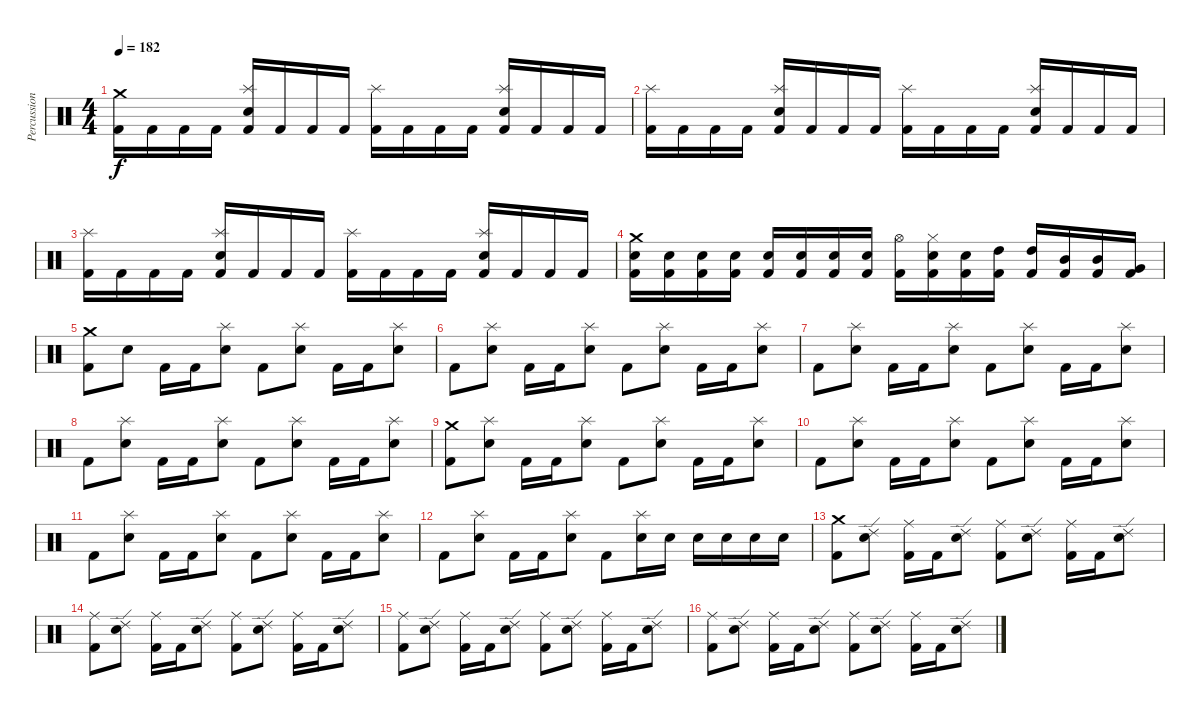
\track ("Percussion" "Percussion") {instrument percussion}
\staff {score}
\articulation defaults
\ts (4 4)
\tempo 182
\clef neutral
\ks c
("Crash medium (hit)" "Kick (hit) 2").16{dy f} "Kick (hit) 2".16 "Kick (hit) 2".16 "Kick (hit) 2".16 ("Splash (hit)" "Electric Snare (hit)" "Kick (hit) 2").16 "Kick (hit) 2".16 "Kick (hit) 2".16 "Kick (hit) 2".16 ("Splash (hit)" "Kick (hit) 2").16 "Kick (hit) 2".16 "Kick (hit) 2".16 "Kick (hit) 2".16 ("Splash (hit)" "Electric Snare (hit)" "Kick (hit) 2").16 "Kick (hit) 2".16 "Kick (hit) 2".16 "Kick (hit) 2".16 |
("Splash (hit)" "Kick (hit) 2").16 "Kick (hit) 2".16 "Kick (hit) 2".16 "Kick (hit) 2".16 ("Splash (hit)" "Electric Snare (hit)" "Kick (hit) 2").16 "Kick (hit) 2".16 "Kick (hit) 2".16 "Kick (hit) 2".16 ("Splash (hit)" "Kick (hit) 2").16 "Kick (hit) 2".16 "Kick (hit) 2".16 "Kick (hit) 2".16 ("Splash (hit)" "Electric Snare (hit)" "Kick (hit) 2").16 "Kick (hit) 2".16 "Kick (hit) 2".16 "Kick (hit) 2".16 |
("Splash (hit)" "Kick (hit) 2").16 "Kick (hit) 2".16 "Kick (hit) 2".16 "Kick (hit) 2".16 ("Splash (hit)" "Electric Snare (hit)" "Kick (hit) 2").16 "Kick (hit) 2".16 "Kick (hit) 2".16 "Kick (hit) 2".16 ("Splash (hit)" "Kick (hit) 2").16 "Kick (hit) 2".16 "Kick (hit) 2".16 "Kick (hit) 2".16 ("Splash (hit)" "Electric Snare (hit)" "Kick (hit) 2").16 "Kick (hit) 2".16 "Kick (hit) 2".16 "Kick (hit) 2".16 |
("Crash medium (hit)" "Electric Snare (hit)" "Kick (hit) 2").16 ("Electric Snare (hit)" "Kick (hit) 2").16 ("Electric Snare (hit)" "Kick (hit) 2").16 ("Electric Snare (hit)" "Kick (hit) 2").16 ("Electric Snare (hit)" "Kick (hit) 2").16 ("Electric Snare (hit)" "Kick (hit) 2").16 ("Electric Snare (hit)" "Kick (hit) 2").16 ("Electric Snare (hit)" "Kick (hit) 2").16 ("Hi-Hat (open)" "Kick (hit) 2").16 ("Hi-Hat (closed)" "Electric Snare (hit)" "Kick (hit) 2").16 ("Electric Snare (hit)" "Kick (hit) 2").16 ("High Tom (hit)" "Kick (hit) 2").16 ("High Tom (hit)" "Kick (hit) 2").16 ("Mid Tom (hit)" "Kick (hit) 2").16 ("Mid Tom (hit)" "Kick (hit) 2").16 ("Very Low Tom (hit)" "Kick (hit) 2").16 |
("Crash medium (hit)" "Kick (hit) 2").8 "Electric Snare (hit)".8 "Kick (hit) 2".16 "Kick (hit) 2".16 ("Splash (hit)" "Electric Snare (hit)").8 "Kick (hit) 2".8 ("Splash (hit)" "Electric Snare (hit)").8 "Kick (hit) 2".16 "Kick (hit) 2".16 ("Splash (hit)" "Electric Snare (hit)").8 |
"Kick (hit) 2".8 ("Splash (hit)" "Electric Snare (hit)").8 "Kick (hit) 2".16 "Kick (hit) 2".16 ("Splash (hit)" "Electric Snare (hit)").8 "Kick (hit) 2".8 ("Splash (hit)" "Electric Snare (hit)").8 "Kick (hit) 2".16 "Kick (hit) 2".16 ("Splash (hit)" "Electric Snare (hit)").8 |
"Kick (hit) 2".8 ("Splash (hit)" "Electric Snare (hit)").8 "Kick (hit) 2".16 "Kick (hit) 2".16 ("Splash (hit)" "Electric Snare (hit)").8 "Kick (hit) 2".8 ("Splash (hit)" "Electric Snare (hit)").8 "Kick (hit) 2".16 "Kick (hit) 2".16 ("Splash (hit)" "Electric Snare (hit)").8 |
"Kick (hit) 2".8 ("Splash (hit)" "Electric Snare (hit)").8 "Kick (hit) 2".16 "Kick (hit) 2".16 ("Splash (hit)" "Electric Snare (hit)").8 "Kick (hit) 2".8 ("Splash (hit)" "Electric Snare (hit)").8 "Kick (hit) 2".16 "Kick (hit) 2".16 ("Splash (hit)" "Electric Snare (hit)").8 |
("Crash medium (hit)" "Kick (hit) 2").8 ("Splash (hit)" "Electric Snare (hit)").8 "Kick (hit) 2".16 "Kick (hit) 2".16 ("Splash (hit)" "Electric Snare (hit)").8 "Kick (hit) 2".8 ("Splash (hit)" "Electric Snare (hit)").8 "Kick (hit) 2".16 "Kick (hit) 2".16 ("Splash (hit)" "Electric Snare (hit)").8 |
"Kick (hit) 2".8 ("Splash (hit)" "Electric Snare (hit)").8 "Kick (hit) 2".16 "Kick (hit) 2".16 ("Splash (hit)" "Electric Snare (hit)").8 "Kick (hit) 2".8 ("Splash (hit)" "Electric Snare (hit)").8 "Kick (hit) 2".16 "Kick (hit) 2".16 ("Splash (hit)" "Electric Snare (hit)").8 |
"Kick (hit) 2".8 ("Splash (hit)" "Electric Snare (hit)").8 "Kick (hit) 2".16 "Kick (hit) 2".16 ("Splash (hit)" "Electric Snare (hit)").8 "Kick (hit) 2".8 ("Splash (hit)" "Electric Snare (hit)").8 "Kick (hit) 2".16 "Kick (hit) 2".16 ("Splash (hit)" "Electric Snare (hit)").8 |
"Kick (hit) 2".8 ("Splash (hit)" "Electric Snare (hit)").8 "Kick (hit) 2".16 "Kick (hit) 2".16 ("Splash (hit)" "Electric Snare (hit)").8 "Kick (hit) 2".8 ("Splash (hit)" "Electric Snare (hit)").16 "Electric Snare (hit)".16 "Electric Snare (hit)".16 "Electric Snare (hit)".16 "Electric Snare (hit)".16 "Electric Snare (hit)".16 |
("Crash medium (hit)" "Kick (hit) 2").8 ("Ride (edge) 2" "Electric Snare (hit)").8 ("Ride (middle)" "Kick (hit) 2").16 "Kick (hit) 2".16 ("Ride (edge) 2" "Electric Snare (hit)").8 ("Ride (middle)" "Kick (hit) 2").8 ("Ride (edge) 2" "Electric Snare (hit)").8 ("Ride (middle)" "Kick (hit) 2").16 "Kick (hit) 2".16 ("Ride (edge) 2" "Electric Snare (hit)").8 |
("Ride (middle)" "Kick (hit) 2").8 ("Ride (edge) 2" "Electric Snare (hit)").8 ("Ride (middle)" "Kick (hit) 2").16 "Kick (hit) 2".16 ("Ride (edge) 2" "Electric Snare (hit)").8 ("Ride (middle)" "Kick (hit) 2").8 ("Ride (edge) 2" "Electric Snare (hit)").8 ("Ride (middle)" "Kick (hit) 2").16 "Kick (hit) 2".16 ("Ride (edge) 2" "Electric Snare (hit)").8 |
("Ride (middle)" "Kick (hit) 2").8 ("Ride (edge) 2" "Electric Snare (hit)").8 ("Ride (middle)" "Kick (hit) 2").16 "Kick (hit) 2".16 ("Ride (edge) 2" "Electric Snare (hit)").8 ("Ride (middle)" "Kick (hit) 2").8 ("Ride (edge) 2" "Electric Snare (hit)").8 ("Ride (middle)" "Kick (hit) 2").16 "Kick (hit) 2".16 ("Ride (edge) 2" "Electric Snare (hit)").8 |
("Ride (middle)" "Kick (hit) 2").8 ("Ride (edge) 2" "Electric Snare (hit)").8 ("Ride (middle)" "Kick (hit) 2").16 "Kick (hit) 2".16 ("Ride (edge) 2" "Electric Snare (hit)").8 ("Ride (middle)" "Kick (hit) 2").8 ("Ride (edge) 2" "Electric Snare (hit)").8 ("Ride (middle)" "Kick (hit) 2").16 "Kick (hit) 2".16 ("Ride (edge) 2" "Electric Snare (hit)").8
